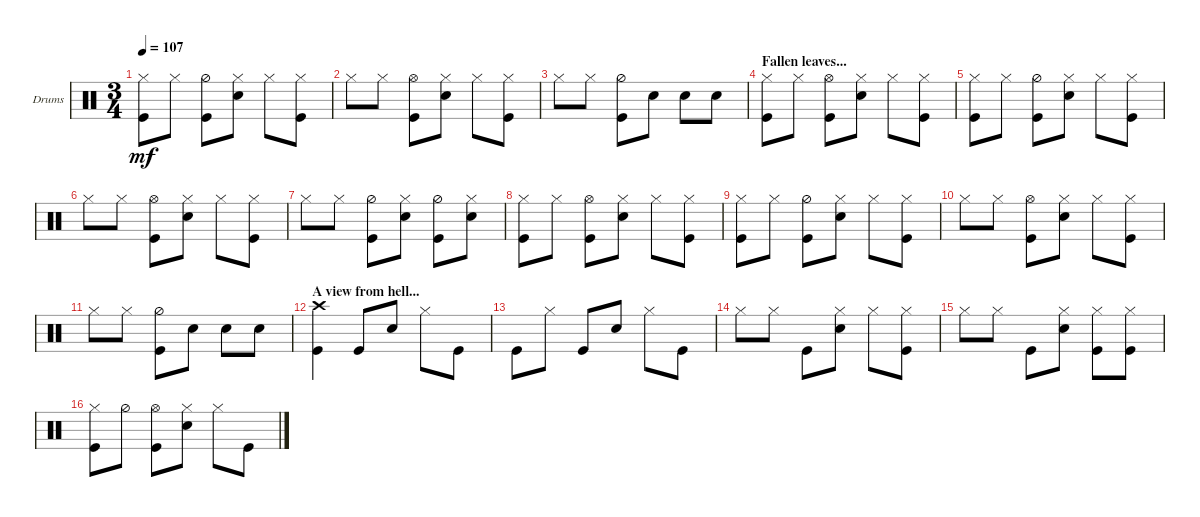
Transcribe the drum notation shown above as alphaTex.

\defaultSystemsLayout 4
\bracketExtendMode groupsimilarinstruments
\firstSystemTrackNameOrientation horizontal
\otherSystemsTrackNameOrientation horizontal
\track ("Drums" "Drums") {instrument percussion}
\staff {score}
\articulation defaults
\ts (3 4)
\tempo 107
\clef neutral
\ks c
("Hi-Hat (closed)" "Kick (hit)").8{dy mf} "Hi-Hat (closed)".8 ("Hi-Hat (half)" "Kick (hit)").8 ("Hi-Hat (closed)" "Snare (hit) 2").8 "Hi-Hat (closed)".8 ("Hi-Hat (closed)" "Kick (hit)").8 |
"Hi-Hat (closed)".8 "Hi-Hat (closed)".8 ("Hi-Hat (open)" "Kick (hit)").8 ("Snare (hit) 2" "Hi-Hat (closed)").8 "Hi-Hat (closed)".8 ("Kick (hit)" "Hi-Hat (closed)").8 |
"Hi-Hat (closed)".8 "Hi-Hat (closed)".8 ("Hi-Hat (half)" "Kick (hit)").8 "Snare (hit) 2".8 "Snare (hit) 2".8 "Snare (hit) 2".8 |
\section ("" "Fallen leaves...")
("Hi-Hat (closed)" "Kick (hit)").8 "Hi-Hat (closed)".8 ("Hi-Hat (open)" "Kick (hit)").8 ("Snare (hit) 2" "Hi-Hat (closed)").8 "Hi-Hat (closed)".8 ("Hi-Hat (closed)" "Kick (hit)").8 |
("Hi-Hat (closed)" "Kick (hit)").8 "Hi-Hat (closed)".8 ("Hi-Hat (half)" "Kick (hit)").8 ("Hi-Hat (closed)" "Snare (hit) 2").8 "Hi-Hat (closed)".8 ("Hi-Hat (closed)" "Kick (hit)").8 |
"Hi-Hat (closed)".8 "Hi-Hat (closed)".8 ("Hi-Hat (open)" "Kick (hit)").8 ("Snare (hit) 2" "Hi-Hat (closed)").8 "Hi-Hat (closed)".8 ("Kick (hit)" "Hi-Hat (closed)").8 |
"Hi-Hat (closed)".8 "Hi-Hat (closed)".8 ("Hi-Hat (half)" "Kick (hit)").8 ("Hi-Hat (closed)" "Snare (hit) 2").8 ("Hi-Hat (half)" "Kick (hit)").8 ("Hi-Hat (closed)" "Snare (hit) 2").8 |
("Hi-Hat (closed)" "Kick (hit)").8 "Hi-Hat (closed)".8 ("Hi-Hat (open)" "Kick (hit)").8 ("Snare (hit) 2" "Hi-Hat (closed)").8 "Hi-Hat (closed)".8 ("Hi-Hat (closed)" "Kick (hit)").8 |
("Hi-Hat (closed)" "Kick (hit)").8 "Hi-Hat (closed)".8 ("Hi-Hat (half)" "Kick (hit)").8 ("Hi-Hat (closed)" "Snare (hit) 2").8 "Hi-Hat (closed)".8 ("Hi-Hat (closed)" "Kick (hit)").8 |
"Hi-Hat (closed)".8 "Hi-Hat (closed)".8 ("Hi-Hat (open)" "Kick (hit)").8 ("Snare (hit) 2" "Hi-Hat (closed)").8 "Hi-Hat (closed)".8 ("Kick (hit)" "Hi-Hat (closed)").8 |
"Hi-Hat (closed)".8 "Hi-Hat (closed)".8 ("Hi-Hat (half)" "Kick (hit)").8 "Snare (hit) 2".8 "Snare (hit) 2".8 "Snare (hit) 2".8 |
\section ("" "A view from hell...")
("Crash high (hit)" "Kick (hit)").4 "Kick (hit)".8 "Snare (hit) 2".8 "Hi-Hat (closed)".8 "Kick (hit)".8 |
"Kick (hit)".8 "Hi-Hat (closed)".8 "Kick (hit)".8 "Snare (hit) 2".8 "Hi-Hat (closed)".8 "Kick (hit)".8 |
"Hi-Hat (closed)".8 "Hi-Hat (closed)".8 "Kick (hit)".8 ("Snare (hit) 2" "Hi-Hat (closed)").8 "Hi-Hat (closed)".8 ("Kick (hit)" "Hi-Hat (closed)").8 |
"Hi-Hat (closed)".8 "Hi-Hat (closed)".8 "Kick (hit)".8 ("Snare (hit) 2" "Hi-Hat (closed)").8 ("Kick (hit)" "Hi-Hat (closed)").8 ("Kick (hit)" "Hi-Hat (closed)").8 |
("Kick (hit)" "Hi-Hat (closed)").8 "Hi-Hat (half)".8 ("Kick (hit)" "Hi-Hat (open)").8 ("Snare (hit) 2" "Hi-Hat (closed)").8 "Hi-Hat (closed)".8 "Kick (hit)".8
